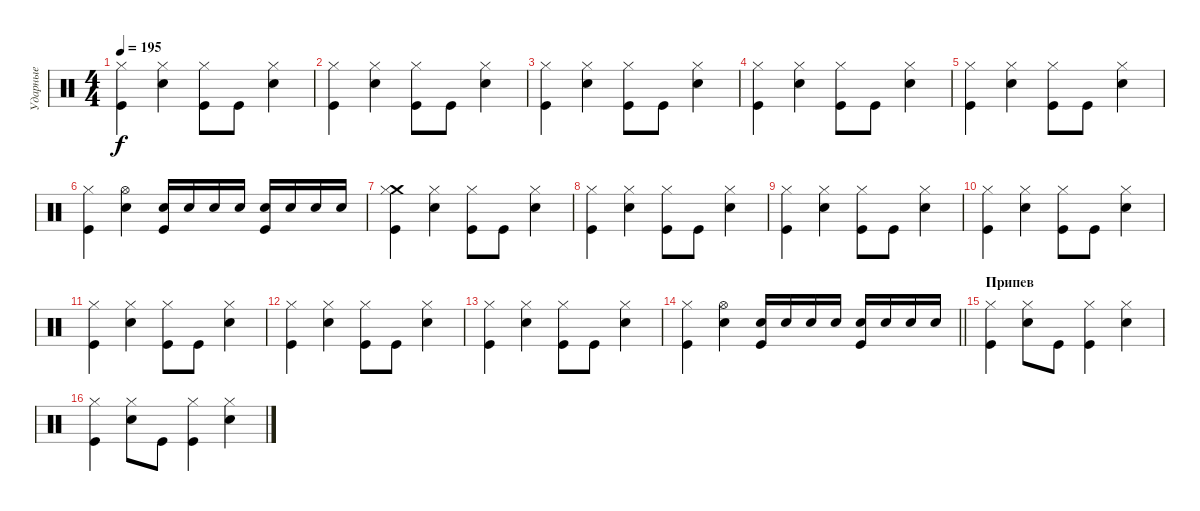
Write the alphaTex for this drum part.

\track ("Ударные" "Ударные") {instrument percussion}
\staff {score}
\articulation defaults
\ts (4 4)
\tempo 195
\clef neutral
\ks c
("Hi-Hat (closed)" "Kick (hit)").4{dy f} ("Hi-Hat (closed)" "Electric Snare (hit)").4 ("Hi-Hat (closed)" "Kick (hit)").8 "Kick (hit)".8 ("Hi-Hat (closed)" "Electric Snare (hit)").4 |
("Hi-Hat (closed)" "Kick (hit)").4 ("Hi-Hat (closed)" "Electric Snare (hit)").4 ("Hi-Hat (closed)" "Kick (hit)").8 "Kick (hit)".8 ("Hi-Hat (closed)" "Electric Snare (hit)").4 |
("Hi-Hat (closed)" "Kick (hit)").4 ("Hi-Hat (closed)" "Electric Snare (hit)").4 ("Hi-Hat (closed)" "Kick (hit)").8 "Kick (hit)".8 ("Hi-Hat (closed)" "Electric Snare (hit)").4 |
("Hi-Hat (closed)" "Kick (hit)").4 ("Hi-Hat (closed)" "Electric Snare (hit)").4 ("Hi-Hat (closed)" "Kick (hit)").8 "Kick (hit)".8 ("Hi-Hat (closed)" "Electric Snare (hit)").4 |
("Hi-Hat (closed)" "Kick (hit)").4 ("Hi-Hat (closed)" "Electric Snare (hit)").4 ("Hi-Hat (closed)" "Kick (hit)").8 "Kick (hit)".8 ("Hi-Hat (closed)" "Electric Snare (hit)").4 |
("Hi-Hat (closed)" "Kick (hit)").4 ("Electric Snare (hit)" "Hi-Hat (open)").4 ("Electric Snare (hit)" "Kick (hit)").16 "Electric Snare (hit)".16 "Electric Snare (hit)".16 "Electric Snare (hit)".16 ("Electric Snare (hit)" "Kick (hit)").16 "Electric Snare (hit)".16 "Electric Snare (hit)".16 "Electric Snare (hit)".16 |
("Crash medium (hit)" "Kick (hit)" "Hi-Hat (closed)").4 ("Hi-Hat (closed)" "Electric Snare (hit)").4 ("Hi-Hat (closed)" "Kick (hit)").8 "Kick (hit)".8 ("Hi-Hat (closed)" "Electric Snare (hit)").4 |
("Hi-Hat (closed)" "Kick (hit)").4 ("Hi-Hat (closed)" "Electric Snare (hit)").4 ("Hi-Hat (closed)" "Kick (hit)").8 "Kick (hit)".8 ("Hi-Hat (closed)" "Electric Snare (hit)").4 |
("Hi-Hat (closed)" "Kick (hit)").4 ("Hi-Hat (closed)" "Electric Snare (hit)").4 ("Hi-Hat (closed)" "Kick (hit)").8 "Kick (hit)".8 ("Hi-Hat (closed)" "Electric Snare (hit)").4 |
("Hi-Hat (closed)" "Kick (hit)").4 ("Hi-Hat (closed)" "Electric Snare (hit)").4 ("Hi-Hat (closed)" "Kick (hit)").8 "Kick (hit)".8 ("Hi-Hat (closed)" "Electric Snare (hit)").4 |
("Hi-Hat (closed)" "Kick (hit)").4 ("Hi-Hat (closed)" "Electric Snare (hit)").4 ("Hi-Hat (closed)" "Kick (hit)").8 "Kick (hit)".8 ("Hi-Hat (closed)" "Electric Snare (hit)").4 |
("Hi-Hat (closed)" "Kick (hit)").4 ("Hi-Hat (closed)" "Electric Snare (hit)").4 ("Hi-Hat (closed)" "Kick (hit)").8 "Kick (hit)".8 ("Hi-Hat (closed)" "Electric Snare (hit)").4 |
("Hi-Hat (closed)" "Kick (hit)").4 ("Hi-Hat (closed)" "Electric Snare (hit)").4 ("Hi-Hat (closed)" "Kick (hit)").8 "Kick (hit)".8 ("Hi-Hat (closed)" "Electric Snare (hit)").4 |
\barLineRight lightlight
("Hi-Hat (closed)" "Kick (hit)").4 ("Hi-Hat (open)" "Electric Snare (hit)").4 ("Electric Snare (hit)" "Kick (hit)").16 "Electric Snare (hit)".16 "Electric Snare (hit)".16 "Electric Snare (hit)".16 ("Electric Snare (hit)" "Kick (hit)").16 "Electric Snare (hit)".16 "Electric Snare (hit)".16 "Electric Snare (hit)".16 |
\section ("" "Припев")
("Hi-Hat (closed)" "Kick (hit)").4 ("Hi-Hat (closed)" "Electric Snare (hit)").8 "Kick (hit)".8 ("Hi-Hat (closed)" "Kick (hit)").4 ("Hi-Hat (closed)" "Electric Snare (hit)").4 |
("Hi-Hat (closed)" "Kick (hit)").4 ("Hi-Hat (closed)" "Electric Snare (hit)").8 "Kick (hit)".8 ("Hi-Hat (closed)" "Kick (hit)").4 ("Hi-Hat (closed)" "Electric Snare (hit)").4
